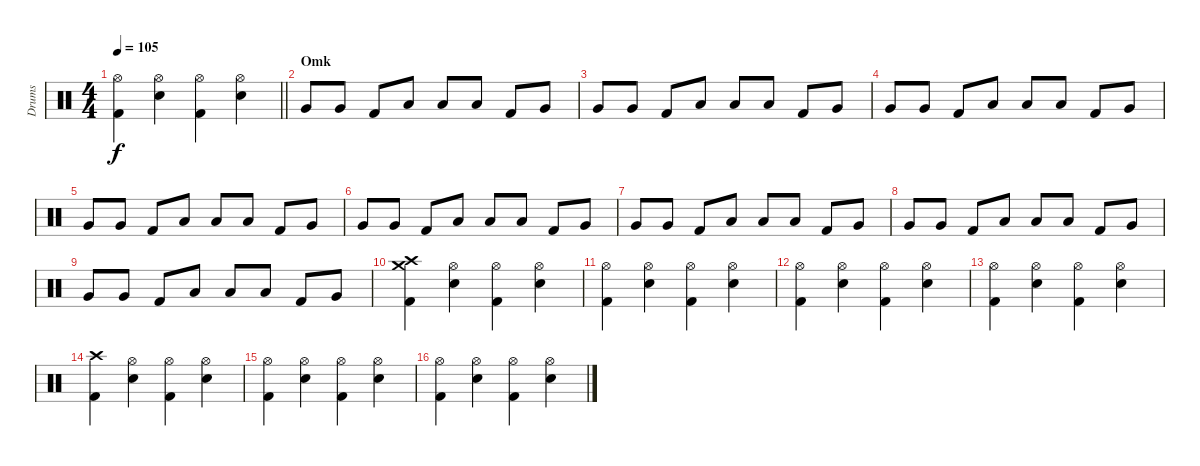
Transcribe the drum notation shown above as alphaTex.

\track ("Drums" "Drums") {instrument percussion}
\staff {score}
\articulation defaults
\ts (4 4)
\tempo 105
\clef neutral
\barLineRight lightlight
\ks c
("Hi-Hat (open)" "Kick (hit) 2").4{dy f} ("Hi-Hat (open)" "Snare (hit) 2").4 ("Hi-Hat (open)" "Kick (hit) 2").4 ("Hi-Hat (open)" "Snare (hit) 2").4 |
\section ("" "Omk")
"Very Low Tom (hit)".8 "Very Low Tom (hit)".8 "Kick (hit) 2".8 "Low Floor Tom (hit)".8 "Low Floor Tom (hit)".8 "Low Floor Tom (hit)".8 "Kick (hit) 2".8 "Very Low Tom (hit)".8 |
"Very Low Tom (hit)".8 "Very Low Tom (hit)".8 "Kick (hit) 2".8 "Low Floor Tom (hit)".8 "Low Floor Tom (hit)".8 "Low Floor Tom (hit)".8 "Kick (hit) 2".8 "Very Low Tom (hit)".8 |
"Very Low Tom (hit)".8 "Very Low Tom (hit)".8 "Kick (hit) 2".8 "Low Floor Tom (hit)".8 "Low Floor Tom (hit)".8 "Low Floor Tom (hit)".8 "Kick (hit) 2".8 "Very Low Tom (hit)".8 |
"Very Low Tom (hit)".8 "Very Low Tom (hit)".8 "Kick (hit) 2".8 "Low Floor Tom (hit)".8 "Low Floor Tom (hit)".8 "Low Floor Tom (hit)".8 "Kick (hit) 2".8 "Very Low Tom (hit)".8 |
"Very Low Tom (hit)".8 "Very Low Tom (hit)".8 "Kick (hit) 2".8 "Low Floor Tom (hit)".8 "Low Floor Tom (hit)".8 "Low Floor Tom (hit)".8 "Kick (hit) 2".8 "Very Low Tom (hit)".8 |
"Very Low Tom (hit)".8 "Very Low Tom (hit)".8 "Kick (hit) 2".8 "Low Floor Tom (hit)".8 "Low Floor Tom (hit)".8 "Low Floor Tom (hit)".8 "Kick (hit) 2".8 "Very Low Tom (hit)".8 |
"Very Low Tom (hit)".8 "Very Low Tom (hit)".8 "Kick (hit) 2".8 "Low Floor Tom (hit)".8 "Low Floor Tom (hit)".8 "Low Floor Tom (hit)".8 "Kick (hit) 2".8 "Very Low Tom (hit)".8 |
"Very Low Tom (hit)".8 "Very Low Tom (hit)".8 "Kick (hit) 2".8 "Low Floor Tom (hit)".8 "Low Floor Tom (hit)".8 "Low Floor Tom (hit)".8 "Kick (hit) 2".8 "Very Low Tom (hit)".8 |
("Crash medium (hit)" "Crash high (hit)" "Kick (hit) 2").4 ("Hi-Hat (open)" "Snare (hit) 2").4 ("Hi-Hat (open)" "Kick (hit) 2").4 ("Hi-Hat (open)" "Snare (hit) 2").4 |
("Hi-Hat (open)" "Kick (hit) 2").4 ("Hi-Hat (open)" "Snare (hit) 2").4 ("Hi-Hat (open)" "Kick (hit) 2").4 ("Hi-Hat (open)" "Snare (hit) 2").4 |
("Hi-Hat (open)" "Kick (hit) 2").4 ("Hi-Hat (open)" "Snare (hit) 2").4 ("Hi-Hat (open)" "Kick (hit) 2").4 ("Hi-Hat (open)" "Snare (hit) 2").4 |
("Hi-Hat (open)" "Kick (hit) 2").4 ("Hi-Hat (open)" "Snare (hit) 2").4 ("Hi-Hat (open)" "Kick (hit) 2").4 ("Hi-Hat (open)" "Snare (hit) 2").4 |
("Crash high (hit)" "Kick (hit) 2").4 ("Hi-Hat (open)" "Snare (hit) 2").4 ("Hi-Hat (open)" "Kick (hit) 2").4 ("Hi-Hat (open)" "Snare (hit) 2").4 |
("Hi-Hat (open)" "Kick (hit) 2").4 ("Hi-Hat (open)" "Snare (hit) 2").4 ("Hi-Hat (open)" "Kick (hit) 2").4 ("Hi-Hat (open)" "Snare (hit) 2").4 |
("Hi-Hat (open)" "Kick (hit) 2").4 ("Hi-Hat (open)" "Snare (hit) 2").4 ("Hi-Hat (open)" "Kick (hit) 2").4 ("Hi-Hat (open)" "Snare (hit) 2").4
